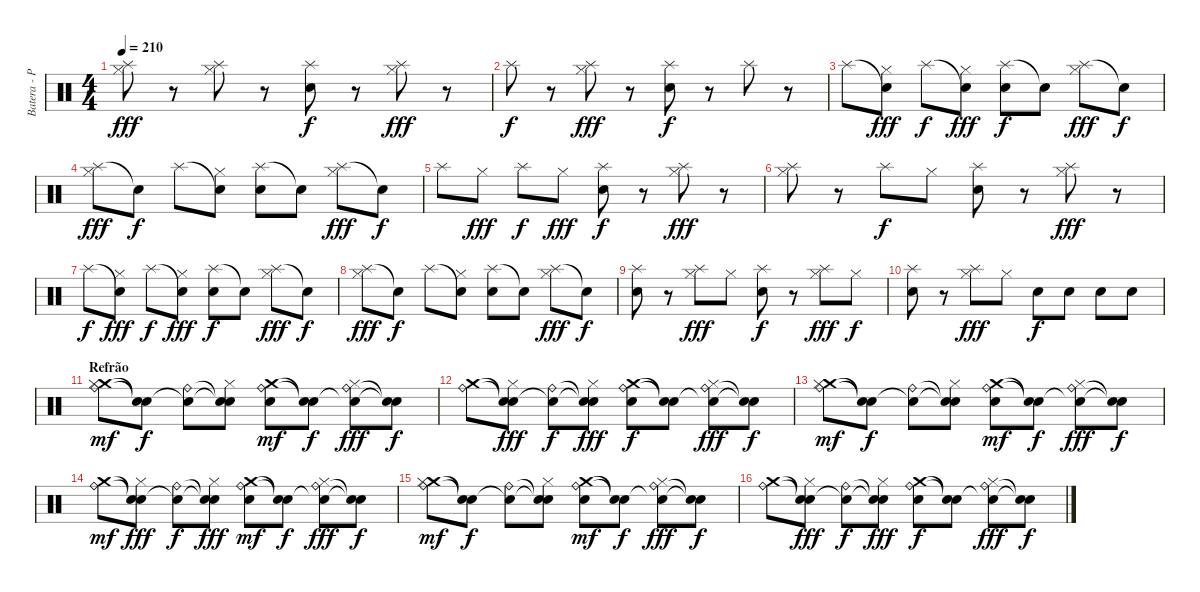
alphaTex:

\track ("Batera - Pelado" "Batera - P") {instrument percussion}
\staff {score}
\articulation defaults
\ts (4 4)
\tempo 210
\clef neutral
\ks c
("Splash (hit)" "Hi-Hat (closed)").8{dy fff} r.8 ("Splash (hit)" "Hi-Hat (closed)").8 r.8 ("Splash (hit)" "Electric Snare (hit)").8{dy f} r.8 ("Splash (hit)" "Hi-Hat (closed)").8{dy fff} r.8 |
"Splash (hit)".8{dy f} r.8 ("Splash (hit)" "Hi-Hat (closed)").8{dy fff} r.8 ("Splash (hit)" "Electric Snare (hit)").8{dy f} r.8 "Splash (hit)".8 r.8 |
"Splash (hit)".8 ("Snare (hit)"{t} "Hi-Hat (closed)").8{dy fff} "Splash (hit)".8{dy f} ("Snare (hit)"{t} "Hi-Hat (closed)").8{dy fff} ("Splash (hit)" "Electric Snare (hit)").8{dy f} "Snare (hit)"{t}.8 ("Splash (hit)" "Hi-Hat (closed)").8{dy fff} "Snare (hit)"{t}.8{dy f} |
("Splash (hit)" "Hi-Hat (closed)").8{dy fff} "Snare (hit)"{t}.8{dy f} "Splash (hit)".8 ("Snare (hit)"{t} "Hi-Hat (closed)").8 ("Splash (hit)" "Electric Snare (hit)").8 "Snare (hit)"{t}.8 ("Splash (hit)" "Hi-Hat (closed)").8{dy fff} "Snare (hit)"{t}.8{dy f} |
"Splash (hit)".8 "Hi-Hat (closed)".8{dy fff} "Splash (hit)".8{dy f} "Hi-Hat (closed)".8{dy fff} ("Splash (hit)" "Electric Snare (hit)").8{dy f} r.8 ("Splash (hit)" "Hi-Hat (closed)").8{dy fff} r.8 |
("Splash (hit)" "Hi-Hat (closed)").8 r.8 "Splash (hit)".8{dy f} "Hi-Hat (closed)".8 ("Splash (hit)" "Electric Snare (hit)").8 r.8 ("Splash (hit)" "Hi-Hat (closed)").8{dy fff} r.8 |
"Splash (hit)".8{dy f} ("Snare (hit)"{t} "Hi-Hat (closed)").8{dy fff} "Splash (hit)".8{dy f} ("Snare (hit)"{t} "Hi-Hat (closed)").8{dy fff} ("Splash (hit)" "Electric Snare (hit)").8{dy f} "Snare (hit)"{t}.8 ("Splash (hit)" "Hi-Hat (closed)").8{dy fff} "Snare (hit)"{t}.8{dy f} |
("Splash (hit)" "Hi-Hat (closed)").8{dy fff} "Snare (hit)"{t}.8{dy f} "Splash (hit)".8 ("Snare (hit)"{t} "Hi-Hat (closed)").8 ("Splash (hit)" "Electric Snare (hit)").8 "Snare (hit)"{t}.8 ("Splash (hit)" "Hi-Hat (closed)").8{dy fff} "Snare (hit)"{t}.8{dy f} |
("Splash (hit)" "Electric Snare (hit)").8 r.8 ("Splash (hit)" "Hi-Hat (closed)").8{dy fff} "Hi-Hat (closed)".8 ("Splash (hit)" "Electric Snare (hit)").8{dy f} r.8 ("Splash (hit)" "Hi-Hat (closed)").8{dy fff} "Hi-Hat (closed)".8{dy f} |
("Splash (hit)" "Electric Snare (hit)").8 r.8 ("Splash (hit)" "Hi-Hat (closed)").8{dy fff} "Hi-Hat (closed)".8 "Electric Snare (hit)".8{dy f} "Electric Snare (hit)".8 "Electric Snare (hit)".8 "Electric Snare (hit)".8 |
\section ("" "Refrão")
("Crash medium (hit)" "Ride (bell)" "Hi-Hat (closed)").8{dy mf} ("Snare (hit)"{t} "Snare (hit)"{t}).8{dy f} ("Snare (hit)"{t} "Ride (bell)").8 ("Snare (hit)"{t} "Snare (hit)"{t} "Hi-Hat (closed)").8 ("Crash medium (hit)" "Ride (bell)" "Electric Snare (hit)").8{dy mf} ("Snare (hit)"{t} "Snare (hit)"{t}).8{dy f} ("Snare (hit)"{t} "Ride (bell)" "Hi-Hat (closed)").8{dy fff} ("Snare (hit)"{t} "Snare (hit)"{t}).8{dy f} |
("Crash medium (hit)" "Ride (bell)").8 ("Snare (hit)"{t} "Snare (hit)"{t} "Hi-Hat (closed)").8{dy fff} ("Snare (hit)"{t} "Ride (bell)").8{dy f} ("Snare (hit)"{t} "Snare (hit)"{t} "Hi-Hat (closed)").8{dy fff} ("Crash medium (hit)" "Ride (bell)" "Electric Snare (hit)").8{dy f} ("Snare (hit)"{t} "Snare (hit)"{t}).8 ("Snare (hit)"{t} "Ride (bell)" "Hi-Hat (closed)").8{dy fff} ("Snare (hit)"{t} "Snare (hit)"{t}).8{dy f} |
("Crash medium (hit)" "Ride (bell)" "Hi-Hat (closed)").8{dy mf} ("Snare (hit)"{t} "Snare (hit)"{t}).8{dy f} ("Snare (hit)"{t} "Ride (bell)").8 ("Snare (hit)"{t} "Snare (hit)"{t} "Hi-Hat (closed)").8 ("Crash medium (hit)" "Ride (bell)" "Electric Snare (hit)").8{dy mf} ("Snare (hit)"{t} "Snare (hit)"{t}).8{dy f} ("Snare (hit)"{t} "Ride (bell)" "Hi-Hat (closed)").8{dy fff} ("Snare (hit)"{t} "Snare (hit)"{t}).8{dy f} |
("Crash medium (hit)" "Ride (bell)").8{dy mf} ("Snare (hit)"{t} "Snare (hit)"{t} "Hi-Hat (closed)").8{dy fff} ("Snare (hit)"{t} "Ride (bell)").8{dy f} ("Snare (hit)"{t} "Snare (hit)"{t} "Hi-Hat (closed)").8{dy fff} ("Crash medium (hit)" "Ride (bell)" "Electric Snare (hit)").8{dy mf} ("Snare (hit)"{t} "Snare (hit)"{t}).8{dy f} ("Snare (hit)"{t} "Ride (bell)" "Hi-Hat (closed)").8{dy fff} ("Snare (hit)"{t} "Snare (hit)"{t}).8{dy f} |
("Crash medium (hit)" "Ride (bell)" "Hi-Hat (closed)").8{dy mf} ("Snare (hit)"{t} "Snare (hit)"{t}).8{dy f} ("Snare (hit)"{t} "Ride (bell)").8 ("Snare (hit)"{t} "Snare (hit)"{t} "Hi-Hat (closed)").8 ("Crash medium (hit)" "Ride (bell)" "Electric Snare (hit)").8{dy mf} ("Snare (hit)"{t} "Snare (hit)"{t}).8{dy f} ("Snare (hit)"{t} "Ride (bell)" "Hi-Hat (closed)").8{dy fff} ("Snare (hit)"{t} "Snare (hit)"{t}).8{dy f} |
("Crash medium (hit)" "Ride (bell)").8 ("Snare (hit)"{t} "Snare (hit)"{t} "Hi-Hat (closed)").8{dy fff} ("Snare (hit)"{t} "Ride (bell)").8{dy f} ("Snare (hit)"{t} "Snare (hit)"{t} "Hi-Hat (closed)").8{dy fff} ("Crash medium (hit)" "Ride (bell)" "Electric Snare (hit)").8{dy f} ("Snare (hit)"{t} "Snare (hit)"{t}).8 ("Snare (hit)"{t} "Ride (bell)" "Hi-Hat (closed)").8{dy fff} ("Snare (hit)"{t} "Snare (hit)"{t}).8{dy f}
